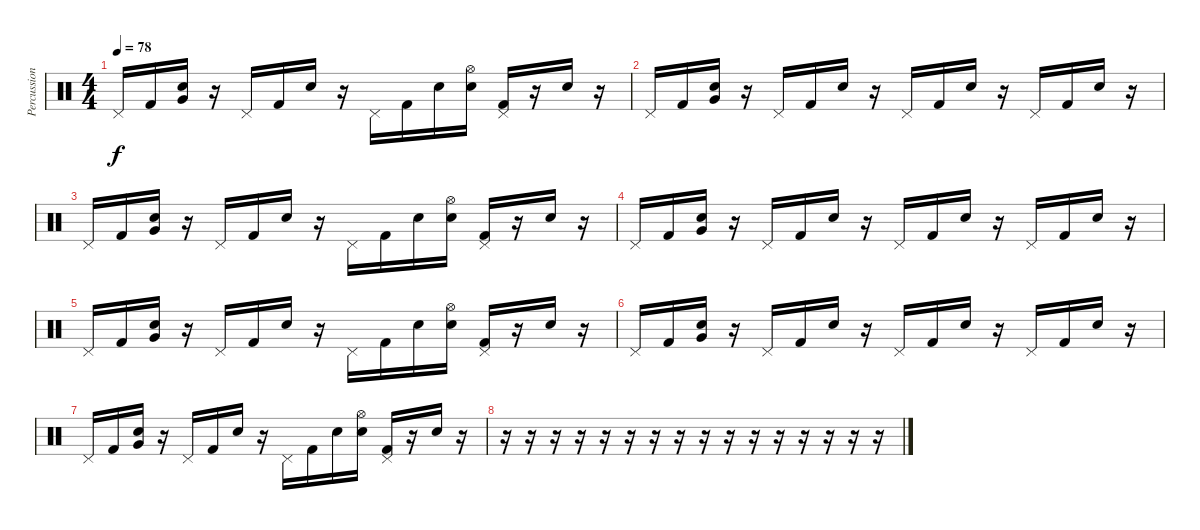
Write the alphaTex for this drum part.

\track ("Percussion" "Percussion") {instrument percussion}
\staff {score}
\articulation defaults
\ts (4 4)
\tempo 78
\clef neutral
\ks c "Pedal Hi-Hat (hit)".16{dy f} "Kick (hit) 2".16
("Electric Snare (hit)" "Very Low Tom (hit)").16 r.16 "Pedal Hi-Hat (hit)".16 "Kick (hit) 2".16 "Electric Snare (hit)".16 r.16 "Pedal Hi-Hat (hit)".16 "Kick (hit) 2".16 "Electric Snare (hit)".16 ("Hi-Hat (open)" "Electric Snare (hit)").16 ("Pedal Hi-Hat (hit)" "Kick (hit) 2").16 r.16 "Electric Snare (hit)".16 r.16 |
"Pedal Hi-Hat (hit)".16 "Kick (hit) 2".16 ("Electric Snare (hit)" "Very Low Tom (hit)").16 r.16 "Pedal Hi-Hat (hit)".16 "Kick (hit) 2".16 "Electric Snare (hit)".16 r.16 "Pedal Hi-Hat (hit)".16 "Kick (hit) 2".16 "Electric Snare (hit)".16 r.16 "Pedal Hi-Hat (hit)".16 "Kick (hit) 2".16 "Electric Snare (hit)".16 r.16 |
"Pedal Hi-Hat (hit)".16 "Kick (hit) 2".16 ("Electric Snare (hit)" "Very Low Tom (hit)").16 r.16 "Pedal Hi-Hat (hit)".16 "Kick (hit) 2".16 "Electric Snare (hit)".16 r.16 "Pedal Hi-Hat (hit)".16 "Kick (hit) 2".16 "Electric Snare (hit)".16 ("Hi-Hat (open)" "Electric Snare (hit)").16 ("Pedal Hi-Hat (hit)" "Kick (hit) 2").16 r.16 "Electric Snare (hit)".16 r.16 |
"Pedal Hi-Hat (hit)".16 "Kick (hit) 2".16 ("Electric Snare (hit)" "Very Low Tom (hit)").16 r.16 "Pedal Hi-Hat (hit)".16 "Kick (hit) 2".16 "Electric Snare (hit)".16 r.16 "Pedal Hi-Hat (hit)".16 "Kick (hit) 2".16 "Electric Snare (hit)".16 r.16 "Pedal Hi-Hat (hit)".16 "Kick (hit) 2".16 "Electric Snare (hit)".16 r.16 |
"Pedal Hi-Hat (hit)".16 "Kick (hit) 2".16 ("Electric Snare (hit)" "Very Low Tom (hit)").16 r.16 "Pedal Hi-Hat (hit)".16 "Kick (hit) 2".16 "Electric Snare (hit)".16 r.16 "Pedal Hi-Hat (hit)".16 "Kick (hit) 2".16 "Electric Snare (hit)".16 ("Hi-Hat (open)" "Electric Snare (hit)").16 ("Pedal Hi-Hat (hit)" "Kick (hit) 2").16 r.16 "Electric Snare (hit)".16 r.16 |
"Pedal Hi-Hat (hit)".16 "Kick (hit) 2".16 ("Electric Snare (hit)" "Very Low Tom (hit)").16 r.16 "Pedal Hi-Hat (hit)".16 "Kick (hit) 2".16 "Electric Snare (hit)".16 r.16 "Pedal Hi-Hat (hit)".16 "Kick (hit) 2".16 "Electric Snare (hit)".16 r.16 "Pedal Hi-Hat (hit)".16 "Kick (hit) 2".16 "Electric Snare (hit)".16 r.16 |
"Pedal Hi-Hat (hit)".16 "Kick (hit) 2".16 ("Electric Snare (hit)" "Very Low Tom (hit)").16 r.16 "Pedal Hi-Hat (hit)".16 "Kick (hit) 2".16 "Electric Snare (hit)".16 r.16 "Pedal Hi-Hat (hit)".16 "Kick (hit) 2".16 "Electric Snare (hit)".16 ("Hi-Hat (open)" "Electric Snare (hit)").16 ("Pedal Hi-Hat (hit)" "Kick (hit) 2").16 r.16 "Electric Snare (hit)".16 r.16 |
r.16 r.16 r.16 r.16 r.16 r.16 r.16 r.16 r.16 r.16 r.16 r.16 r.16 r.16 r.16 r.16
